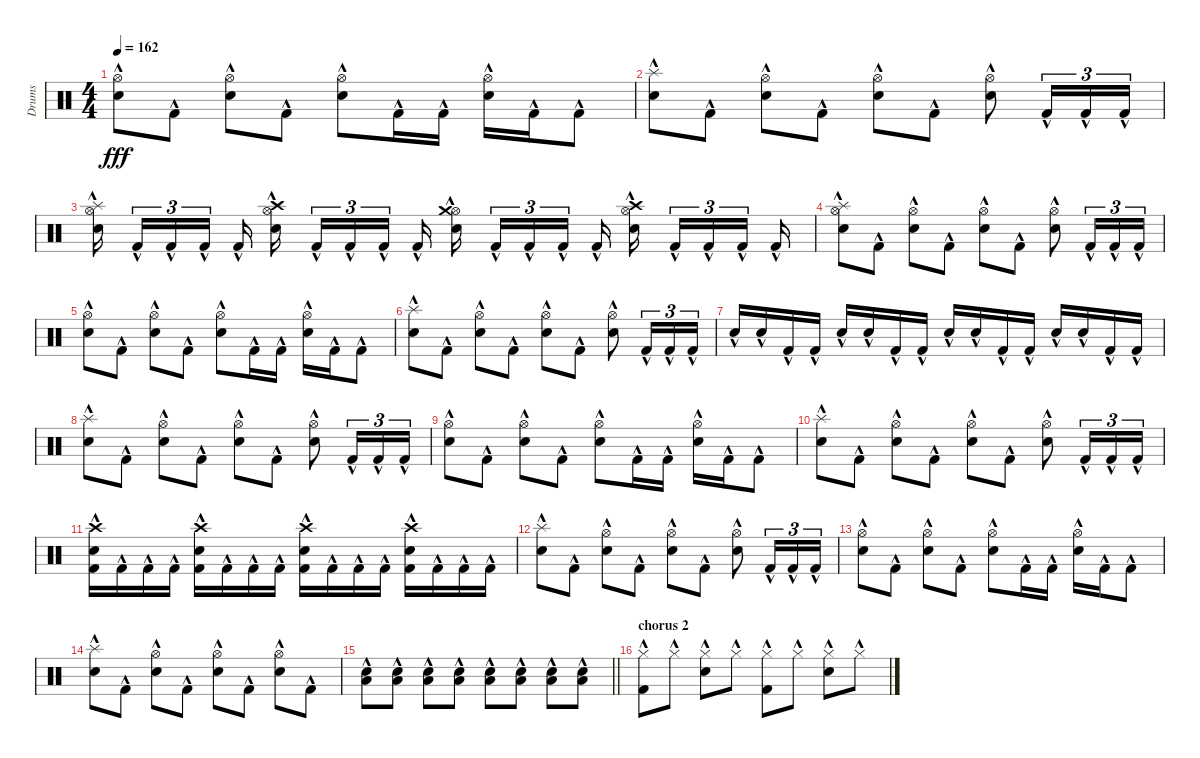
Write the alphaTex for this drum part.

\track ("Drums" "Drums") {instrument percussion}
\staff {score}
\articulation defaults
\ts (4 4)
\tempo 162
\clef neutral
\ks c
("Hi-Hat (open)"{hac} "Electric Snare (hit)"{hac}).8{dy fff} "Kick (hit) 2"{hac}.8 ("Hi-Hat (open)"{hac} "Electric Snare (hit)"{hac}).8 "Kick (hit) 2"{hac}.8 ("Hi-Hat (open)"{hac} "Electric Snare (hit)"{hac}).8 "Kick (hit) 2"{hac}.16 "Kick (hit) 2"{hac}.16 ("Hi-Hat (open)"{hac} "Electric Snare (hit)"{hac}).16 "Kick (hit) 2"{hac}.16 "Kick (hit) 2"{hac}.8 |
("Electric Snare (hit)"{hac} "Splash (hit)"{hac}).8 "Kick (hit) 2"{hac}.8 ("Hi-Hat (open)"{hac} "Electric Snare (hit)"{hac}).8 "Kick (hit) 2"{hac}.8 ("Hi-Hat (open)"{hac} "Electric Snare (hit)"{hac}).8 "Kick (hit) 2"{hac}.8 ("Hi-Hat (open)"{hac} "Electric Snare (hit)"{hac}).8 "Kick (hit) 2"{hac}.16{tu (3 2)} "Kick (hit) 2"{hac}.16{tu (3 2)} "Kick (hit) 2"{hac}.16{tu (3 2)} |
("Hi-Hat (open)"{hac} "Electric Snare (hit)"{hac} "Splash (hit)"{hac}).16{beam splitsecondary} "Kick (hit) 2"{hac}.16{tu (3 2)} "Kick (hit) 2"{hac}.16{tu (3 2)} "Kick (hit) 2"{hac}.16{tu (3 2) beam splitsecondary} "Kick (hit) 2"{hac}.16 ("Hi-Hat (open)"{hac} "Electric Snare (hit)"{hac} "Crash high (hit)"{hac}).16{beam splitsecondary} "Kick (hit) 2"{hac}.16{tu (3 2)} "Kick (hit) 2"{hac}.16{tu (3 2)} "Kick (hit) 2"{hac}.16{tu (3 2) beam splitsecondary} "Kick (hit) 2"{hac}.16 ("Hi-Hat (open)"{hac} "Electric Snare (hit)"{hac} "Crash medium (hit)"{hac}).16{beam splitsecondary} "Kick (hit) 2"{hac}.16{tu (3 2)} "Kick (hit) 2"{hac}.16{tu (3 2)} "Kick (hit) 2"{hac}.16{tu (3 2) beam splitsecondary} "Kick (hit) 2"{hac}.16 ("Hi-Hat (open)"{hac} "Electric Snare (hit)"{hac} "Crash high (hit)"{hac}).16{beam splitsecondary} "Kick (hit) 2"{hac}.16{tu (3 2)} "Kick (hit) 2"{hac}.16{tu (3 2)} "Kick (hit) 2"{hac}.16{tu (3 2) beam splitsecondary} "Kick (hit) 2"{hac}.16 |
("Hi-Hat (open)"{hac} "Electric Snare (hit)"{hac} "Splash (hit)"{hac}).8 "Kick (hit) 2"{hac}.8 ("Hi-Hat (open)"{hac} "Electric Snare (hit)"{hac}).8 "Kick (hit) 2"{hac}.8 ("Hi-Hat (open)"{hac} "Electric Snare (hit)"{hac}).8 "Kick (hit) 2"{hac}.8 ("Hi-Hat (open)"{hac} "Electric Snare (hit)"{hac}).8 "Kick (hit) 2"{hac}.16{tu (3 2)} "Kick (hit) 2"{hac}.16{tu (3 2)} "Kick (hit) 2"{hac}.16{tu (3 2)} |
("Hi-Hat (open)"{hac} "Electric Snare (hit)"{hac}).8 "Kick (hit) 2"{hac}.8 ("Hi-Hat (open)"{hac} "Electric Snare (hit)"{hac}).8 "Kick (hit) 2"{hac}.8 ("Hi-Hat (open)"{hac} "Electric Snare (hit)"{hac}).8 "Kick (hit) 2"{hac}.16 "Kick (hit) 2"{hac}.16 ("Hi-Hat (open)"{hac} "Electric Snare (hit)"{hac}).16 "Kick (hit) 2"{hac}.16 "Kick (hit) 2"{hac}.8 |
("Electric Snare (hit)"{hac} "Splash (hit)"{hac}).8 "Kick (hit) 2"{hac}.8 ("Hi-Hat (open)"{hac} "Electric Snare (hit)"{hac}).8 "Kick (hit) 2"{hac}.8 ("Hi-Hat (open)"{hac} "Electric Snare (hit)"{hac}).8 "Kick (hit) 2"{hac}.8 ("Hi-Hat (open)"{hac} "Electric Snare (hit)"{hac}).8 "Kick (hit) 2"{hac}.16{tu (3 2)} "Kick (hit) 2"{hac}.16{tu (3 2)} "Kick (hit) 2"{hac}.16{tu (3 2)} |
"Electric Snare (hit)"{hac}.16 "Electric Snare (hit)"{hac}.16 "Kick (hit) 2"{hac}.16 "Kick (hit) 2"{hac}.16 "Electric Snare (hit)"{hac}.16 "Electric Snare (hit)"{hac}.16 "Kick (hit) 2"{hac}.16 "Kick (hit) 2"{hac}.16 "Electric Snare (hit)"{hac}.16 "Electric Snare (hit)"{hac}.16 "Kick (hit) 2"{hac}.16 "Kick (hit) 2"{hac}.16 "Electric Snare (hit)"{hac}.16 "Electric Snare (hit)"{hac}.16 "Kick (hit) 2"{hac}.16 "Kick (hit) 2"{hac}.16 |
("Electric Snare (hit)"{hac} "Splash (hit)"{hac}).8 "Kick (hit) 2"{hac}.8 ("Hi-Hat (open)"{hac} "Electric Snare (hit)"{hac}).8 "Kick (hit) 2"{hac}.8 ("Hi-Hat (open)"{hac} "Electric Snare (hit)"{hac}).8 "Kick (hit) 2"{hac}.8 ("Hi-Hat (open)"{hac} "Electric Snare (hit)"{hac}).8 "Kick (hit) 2"{hac}.16{tu (3 2)} "Kick (hit) 2"{hac}.16{tu (3 2)} "Kick (hit) 2"{hac}.16{tu (3 2)} |
("Hi-Hat (open)"{hac} "Electric Snare (hit)"{hac}).8 "Kick (hit) 2"{hac}.8 ("Hi-Hat (open)"{hac} "Electric Snare (hit)"{hac}).8 "Kick (hit) 2"{hac}.8 ("Hi-Hat (open)"{hac} "Electric Snare (hit)"{hac}).8 "Kick (hit) 2"{hac}.16 "Kick (hit) 2"{hac}.16 ("Hi-Hat (open)"{hac} "Electric Snare (hit)"{hac}).16 "Kick (hit) 2"{hac}.16 "Kick (hit) 2"{hac}.8 |
("Electric Snare (hit)"{hac} "Splash (hit)"{hac}).8 "Kick (hit) 2"{hac}.8 ("Hi-Hat (open)"{hac} "Electric Snare (hit)"{hac}).8 "Kick (hit) 2"{hac}.8 ("Hi-Hat (open)"{hac} "Electric Snare (hit)"{hac}).8 "Kick (hit) 2"{hac}.8 ("Hi-Hat (open)"{hac} "Electric Snare (hit)"{hac}).8 "Kick (hit) 2"{hac}.16{tu (3 2)} "Kick (hit) 2"{hac}.16{tu (3 2)} "Kick (hit) 2"{hac}.16{tu (3 2)} |
("Kick (hit) 2"{hac} "Electric Snare (hit)"{hac} "Crash high (hit)"{hac}).16 "Kick (hit) 2"{hac}.16 "Kick (hit) 2"{hac}.16 "Kick (hit) 2"{hac}.16 ("Kick (hit) 2"{hac} "Electric Snare (hit)"{hac} "Crash high (hit)"{hac}).16 "Kick (hit) 2"{hac}.16 "Kick (hit) 2"{hac}.16 "Kick (hit) 2"{hac}.16 ("Kick (hit) 2"{hac} "Electric Snare (hit)"{hac} "Crash high (hit)"{hac}).16 "Kick (hit) 2"{hac}.16 "Kick (hit) 2"{hac}.16 "Kick (hit) 2"{hac}.16 ("Kick (hit) 2"{hac} "Electric Snare (hit)"{hac} "Crash high (hit)"{hac}).16 "Kick (hit) 2"{hac}.16 "Kick (hit) 2"{hac}.16 "Kick (hit) 2"{hac}.16 |
("Electric Snare (hit)"{hac} "Splash (hit)"{hac}).8 "Kick (hit) 2"{hac}.8 ("Hi-Hat (open)"{hac} "Electric Snare (hit)"{hac}).8 "Kick (hit) 2"{hac}.8 ("Hi-Hat (open)"{hac} "Electric Snare (hit)"{hac}).8 "Kick (hit) 2"{hac}.8 ("Hi-Hat (open)"{hac} "Electric Snare (hit)"{hac}).8 "Kick (hit) 2"{hac}.16{tu (3 2)} "Kick (hit) 2"{hac}.16{tu (3 2)} "Kick (hit) 2"{hac}.16{tu (3 2)} |
("Hi-Hat (open)"{hac} "Electric Snare (hit)"{hac}).8 "Kick (hit) 2"{hac}.8 ("Hi-Hat (open)"{hac} "Electric Snare (hit)"{hac}).8 "Kick (hit) 2"{hac}.8 ("Hi-Hat (open)"{hac} "Electric Snare (hit)"{hac}).8 "Kick (hit) 2"{hac}.16 "Kick (hit) 2"{hac}.16 ("Hi-Hat (open)"{hac} "Electric Snare (hit)"{hac}).16 "Kick (hit) 2"{hac}.16 "Kick (hit) 2"{hac}.8 |
("Electric Snare (hit)"{hac} "Splash (hit)"{hac}).8 "Kick (hit) 2"{hac}.8 ("Hi-Hat (open)"{hac} "Electric Snare (hit)"{hac}).8 "Kick (hit) 2"{hac}.8 ("Hi-Hat (open)"{hac} "Electric Snare (hit)"{hac}).8 "Kick (hit) 2"{hac}.8 ("Hi-Hat (open)"{hac} "Electric Snare (hit)"{hac}).8 "Kick (hit) 2"{hac}.8 |
\barLineRight lightlight
("Electric Snare (hit)"{hac} "Low Floor Tom (hit)"{hac}).8 ("Electric Snare (hit)"{hac} "Low Floor Tom (hit)"{hac}).8 ("Electric Snare (hit)"{hac} "Low Floor Tom (hit)"{hac}).8 ("Electric Snare (hit)"{hac} "Low Floor Tom (hit)"{hac}).8 ("Electric Snare (hit)"{hac} "Low Floor Tom (hit)"{hac}).8 ("Electric Snare (hit)"{hac} "Low Floor Tom (hit)"{hac}).8 ("Electric Snare (hit)"{hac} "Low Floor Tom (hit)"{hac}).8 ("Electric Snare (hit)"{hac} "Low Floor Tom (hit)"{hac}).8 |
\section ("" "chorus 2")
("Hi-Hat (closed)"{hac} "Kick (hit) 2"{hac}).8 "Hi-Hat (closed)"{hac}.8 ("Hi-Hat (closed)"{hac} "Electric Snare (hit)"{hac}).8 "Hi-Hat (closed)"{hac}.8 ("Hi-Hat (closed)"{hac} "Kick (hit) 2"{hac}).8 "Hi-Hat (closed)"{hac}.8 ("Hi-Hat (closed)"{hac} "Electric Snare (hit)"{hac}).8 "Hi-Hat (closed)"{hac}.8
